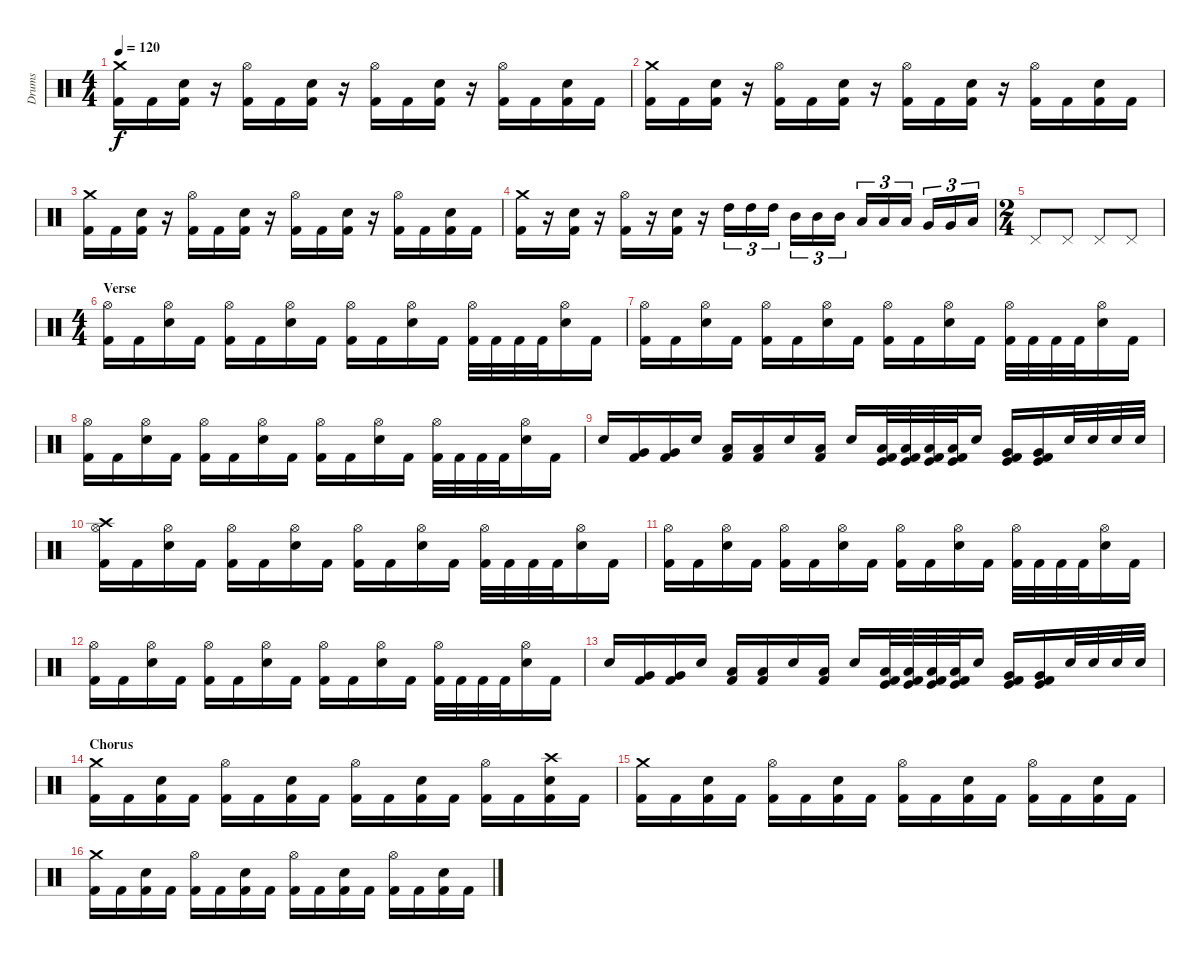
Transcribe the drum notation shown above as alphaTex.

\track ("Drums" "Drums") {instrument percussion}
\staff {score}
\articulation defaults
\ts (4 4)
\tempo 120
\clef neutral
\ks c
("Crash medium (hit)" "Kick (hit) 2").16{dy f} "Kick (hit) 2".16 ("Snare (hit) 2" "Kick (hit) 2").16 r.16 ("Hi-Hat (open)" "Kick (hit) 2").16 "Kick (hit) 2".16 ("Snare (hit) 2" "Kick (hit) 2").16 r.16 ("Hi-Hat (open)" "Kick (hit) 2").16 "Kick (hit) 2".16 ("Snare (hit) 2" "Kick (hit) 2").16 r.16 ("Hi-Hat (open)" "Kick (hit) 2").16 "Kick (hit) 2".16 ("Snare (hit) 2" "Kick (hit) 2").16 "Kick (hit) 2".16 |
("Crash medium (hit)" "Kick (hit) 2").16 "Kick (hit) 2".16 ("Snare (hit) 2" "Kick (hit) 2").16 r.16 ("Hi-Hat (open)" "Kick (hit) 2").16 "Kick (hit) 2".16 ("Snare (hit) 2" "Kick (hit) 2").16 r.16 ("Hi-Hat (open)" "Kick (hit) 2").16 "Kick (hit) 2".16 ("Snare (hit) 2" "Kick (hit) 2").16 r.16 ("Hi-Hat (open)" "Kick (hit) 2").16 "Kick (hit) 2".16 ("Snare (hit) 2" "Kick (hit) 2").16 "Kick (hit) 2".16 |
("Crash medium (hit)" "Kick (hit) 2").16 "Kick (hit) 2".16 ("Snare (hit) 2" "Kick (hit) 2").16 r.16 ("Hi-Hat (open)" "Kick (hit) 2").16 "Kick (hit) 2".16 ("Snare (hit) 2" "Kick (hit) 2").16 r.16 ("Hi-Hat (open)" "Kick (hit) 2").16 "Kick (hit) 2".16 ("Snare (hit) 2" "Kick (hit) 2").16 r.16 ("Hi-Hat (open)" "Kick (hit) 2").16 "Kick (hit) 2".16 ("Snare (hit) 2" "Kick (hit) 2").16 "Kick (hit) 2".16 |
("Crash medium (hit)" "Kick (hit) 2").16 r.16 ("Snare (hit) 2" "Kick (hit) 2").16 r.16 ("Hi-Hat (open)" "Kick (hit) 2").16 r.16 ("Snare (hit) 2" "Kick (hit) 2").16 r.16 "High Tom (hit)".16{tu (3 2)} "High Tom (hit)".16{tu (3 2)} "High Tom (hit)".16{tu (3 2)} "Mid Tom (hit)".16{tu (3 2)} "Mid Tom (hit)".16{tu (3 2)} "Mid Tom (hit)".16{tu (3 2)} "Low Tom (hit)".16{tu (3 2)} "Low Tom (hit)".16{tu (3 2)} "Low Tom (hit)".16{tu (3 2)} "Very Low Tom (hit)".16{tu (3 2)} "Very Low Tom (hit)".16{tu (3 2)} "Low Floor Tom (hit)".16{tu (3 2)} |
\ts (2 4)
"Pedal Hi-Hat (hit)".8 "Pedal Hi-Hat (hit)".8 "Pedal Hi-Hat (hit)".8 "Pedal Hi-Hat (hit)".8 |
\ts (4 4)
\section ("" "Verse")
("Hi-Hat (open)" "Kick (hit) 2").16 "Kick (hit) 2".16 ("Hi-Hat (open)" "Snare (hit) 2").16 "Kick (hit) 2".16 ("Hi-Hat (open)" "Kick (hit) 2").16 "Kick (hit) 2".16 ("Hi-Hat (open)" "Snare (hit) 2").16 "Kick (hit) 2".16 ("Hi-Hat (open)" "Kick (hit) 2").16 "Kick (hit) 2".16 ("Hi-Hat (open)" "Snare (hit) 2").16 "Kick (hit) 2".16 ("Hi-Hat (open)" "Kick (hit) 2").32 "Kick (hit) 2".32 "Kick (hit) 2".32 "Kick (hit) 2".32 ("Hi-Hat (open)" "Snare (hit) 2").16 "Kick (hit) 2".16 |
("Hi-Hat (open)" "Kick (hit) 2").16 "Kick (hit) 2".16 ("Hi-Hat (open)" "Snare (hit) 2").16 "Kick (hit) 2".16 ("Hi-Hat (open)" "Kick (hit) 2").16 "Kick (hit) 2".16 ("Hi-Hat (open)" "Snare (hit) 2").16 "Kick (hit) 2".16 ("Hi-Hat (open)" "Kick (hit) 2").16 "Kick (hit) 2".16 ("Hi-Hat (open)" "Snare (hit) 2").16 "Kick (hit) 2".16 ("Hi-Hat (open)" "Kick (hit) 2").32 "Kick (hit) 2".32 "Kick (hit) 2".32 "Kick (hit) 2".32 ("Hi-Hat (open)" "Snare (hit) 2").16 "Kick (hit) 2".16 |
("Hi-Hat (open)" "Kick (hit) 2").16 "Kick (hit) 2".16 ("Hi-Hat (open)" "Snare (hit) 2").16 "Kick (hit) 2".16 ("Hi-Hat (open)" "Kick (hit) 2").16 "Kick (hit) 2".16 ("Hi-Hat (open)" "Snare (hit) 2").16 "Kick (hit) 2".16 ("Hi-Hat (open)" "Kick (hit) 2").16 "Kick (hit) 2".16 ("Hi-Hat (open)" "Snare (hit) 2").16 "Kick (hit) 2".16 ("Hi-Hat (open)" "Kick (hit) 2").32 "Kick (hit) 2".32 "Kick (hit) 2".32 "Kick (hit) 2".32 ("Hi-Hat (open)" "Snare (hit) 2").16 "Kick (hit) 2".16 |
"Snare (hit) 2".16 ("Very Low Tom (hit)" "Kick (hit) 2").16 ("Very Low Tom (hit)" "Kick (hit) 2").16 "Snare (hit) 2".16 ("Low Floor Tom (hit)" "Kick (hit) 2").16 ("Low Floor Tom (hit)" "Kick (hit) 2").16 "Snare (hit) 2".16 ("Low Floor Tom (hit)" "Kick (hit) 2").16 "Snare (hit) 2".16 ("Low Floor Tom (hit)" "Kick (hit)" "Kick (hit) 2").32 ("Low Floor Tom (hit)" "Kick (hit)" "Kick (hit) 2").32 ("Low Floor Tom (hit)" "Kick (hit)" "Kick (hit) 2").32 ("Low Floor Tom (hit)" "Kick (hit)" "Kick (hit) 2").32 "Snare (hit) 2".16 ("Very Low Tom (hit)" "Kick (hit)" "Kick (hit) 2").16 ("Very Low Tom (hit)" "Kick (hit)" "Kick (hit) 2").16 "Snare (hit) 2".32 "Snare (hit) 2".32 "Snare (hit) 2".32 "Snare (hit) 2".32 |
("Crash high (hit)" "Hi-Hat (open)" "Kick (hit) 2").16 "Kick (hit) 2".16 ("Hi-Hat (open)" "Snare (hit) 2").16 "Kick (hit) 2".16 ("Hi-Hat (open)" "Kick (hit) 2").16 "Kick (hit) 2".16 ("Hi-Hat (open)" "Snare (hit) 2").16 "Kick (hit) 2".16 ("Hi-Hat (open)" "Kick (hit) 2").16 "Kick (hit) 2".16 ("Hi-Hat (open)" "Snare (hit) 2").16 "Kick (hit) 2".16 ("Hi-Hat (open)" "Kick (hit) 2").32 "Kick (hit) 2".32 "Kick (hit) 2".32 "Kick (hit) 2".32 ("Hi-Hat (open)" "Snare (hit) 2").16 "Kick (hit) 2".16 |
("Hi-Hat (open)" "Kick (hit) 2").16 "Kick (hit) 2".16 ("Hi-Hat (open)" "Snare (hit) 2").16 "Kick (hit) 2".16 ("Hi-Hat (open)" "Kick (hit) 2").16 "Kick (hit) 2".16 ("Hi-Hat (open)" "Snare (hit) 2").16 "Kick (hit) 2".16 ("Hi-Hat (open)" "Kick (hit) 2").16 "Kick (hit) 2".16 ("Hi-Hat (open)" "Snare (hit) 2").16 "Kick (hit) 2".16 ("Hi-Hat (open)" "Kick (hit) 2").32 "Kick (hit) 2".32 "Kick (hit) 2".32 "Kick (hit) 2".32 ("Hi-Hat (open)" "Snare (hit) 2").16 "Kick (hit) 2".16 |
("Hi-Hat (open)" "Kick (hit) 2").16 "Kick (hit) 2".16 ("Hi-Hat (open)" "Snare (hit) 2").16 "Kick (hit) 2".16 ("Hi-Hat (open)" "Kick (hit) 2").16 "Kick (hit) 2".16 ("Hi-Hat (open)" "Snare (hit) 2").16 "Kick (hit) 2".16 ("Hi-Hat (open)" "Kick (hit) 2").16 "Kick (hit) 2".16 ("Hi-Hat (open)" "Snare (hit) 2").16 "Kick (hit) 2".16 ("Hi-Hat (open)" "Kick (hit) 2").32 "Kick (hit) 2".32 "Kick (hit) 2".32 "Kick (hit) 2".32 ("Hi-Hat (open)" "Snare (hit) 2").16 "Kick (hit) 2".16 |
"Snare (hit) 2".16 ("Very Low Tom (hit)" "Kick (hit) 2").16 ("Very Low Tom (hit)" "Kick (hit) 2").16 "Snare (hit) 2".16 ("Low Floor Tom (hit)" "Kick (hit) 2").16 ("Low Floor Tom (hit)" "Kick (hit) 2").16 "Snare (hit) 2".16 ("Low Floor Tom (hit)" "Kick (hit) 2").16 "Snare (hit) 2".16 ("Low Floor Tom (hit)" "Kick (hit)" "Kick (hit) 2").32 ("Low Floor Tom (hit)" "Kick (hit)" "Kick (hit) 2").32 ("Low Floor Tom (hit)" "Kick (hit)" "Kick (hit) 2").32 ("Low Floor Tom (hit)" "Kick (hit)" "Kick (hit) 2").32 "Snare (hit) 2".16 ("Very Low Tom (hit)" "Kick (hit)" "Kick (hit) 2").16 ("Very Low Tom (hit)" "Kick (hit)" "Kick (hit) 2").16 "Snare (hit) 2".32 "Snare (hit) 2".32 "Snare (hit) 2".32 "Snare (hit) 2".32 |
\section ("" "Chorus")
("Crash medium (hit)" "Kick (hit) 2").16 "Kick (hit) 2".16 ("Snare (hit) 2" "Kick (hit) 2").16 "Kick (hit) 2".16 ("Hi-Hat (open)" "Kick (hit) 2").16 "Kick (hit) 2".16 ("Snare (hit) 2" "Kick (hit) 2").16 "Kick (hit) 2".16 ("Hi-Hat (open)" "Kick (hit) 2").16 "Kick (hit) 2".16 ("Snare (hit) 2" "Kick (hit) 2").16 "Kick (hit) 2".16 ("Hi-Hat (open)" "Kick (hit) 2").16 "Kick (hit) 2".16 ("Crash high (hit)" "Snare (hit) 2" "Kick (hit) 2").16 "Kick (hit) 2".16 |
("Crash medium (hit)" "Kick (hit) 2").16 "Kick (hit) 2".16 ("Snare (hit) 2" "Kick (hit) 2").16 "Kick (hit) 2".16 ("Hi-Hat (open)" "Kick (hit) 2").16 "Kick (hit) 2".16 ("Snare (hit) 2" "Kick (hit) 2").16 "Kick (hit) 2".16 ("Hi-Hat (open)" "Kick (hit) 2").16 "Kick (hit) 2".16 ("Snare (hit) 2" "Kick (hit) 2").16 "Kick (hit) 2".16 ("Hi-Hat (open)" "Kick (hit) 2").16 "Kick (hit) 2".16 ("Snare (hit) 2" "Kick (hit) 2").16 "Kick (hit) 2".16 |
("Crash medium (hit)" "Kick (hit) 2").16 "Kick (hit) 2".16 ("Snare (hit) 2" "Kick (hit) 2").16 "Kick (hit) 2".16 ("Hi-Hat (open)" "Kick (hit) 2").16 "Kick (hit) 2".16 ("Snare (hit) 2" "Kick (hit) 2").16 "Kick (hit) 2".16 ("Hi-Hat (open)" "Kick (hit) 2").16 "Kick (hit) 2".16 ("Snare (hit) 2" "Kick (hit) 2").16 "Kick (hit) 2".16 ("Hi-Hat (open)" "Kick (hit) 2").16 "Kick (hit) 2".16 ("Snare (hit) 2" "Kick (hit) 2").16 "Kick (hit) 2".16
